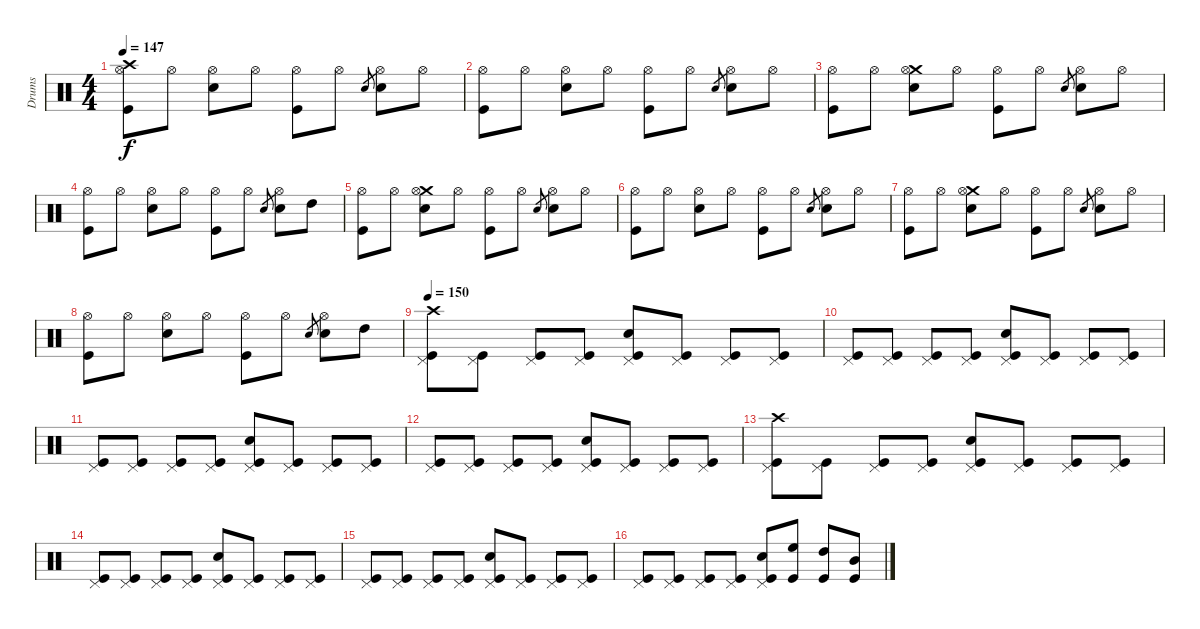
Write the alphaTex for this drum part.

\track ("Drums" "Drums") {instrument percussion}
\staff {score}
\articulation defaults
\ts (4 4)
\section ("" "")
\tempo 147
\clef neutral
\ks c
("Crash high (hit)" "Hi-Hat (open)" "Kick (hit)").8{dy f} "Hi-Hat (open)".8 ("Hi-Hat (open)" "Snare (hit) 2").8 "Hi-Hat (open)".8 ("Hi-Hat (open)" "Kick (hit)").8 "Hi-Hat (open)".8 "Snare (hit) 2".8{gr} ("Hi-Hat (open)" "Snare (hit) 2").8 "Hi-Hat (open)".8 |
("Hi-Hat (open)" "Kick (hit)").8 "Hi-Hat (open)".8 ("Hi-Hat (open)" "Snare (hit) 2").8 "Hi-Hat (open)".8 ("Hi-Hat (open)" "Kick (hit)").8 "Hi-Hat (open)".8 "Snare (hit) 2".8{gr} ("Hi-Hat (open)" "Snare (hit) 2").8 "Hi-Hat (open)".8 |
("Hi-Hat (open)" "Kick (hit)").8 "Hi-Hat (open)".8 ("Crash medium (hit)" "Hi-Hat (open)" "Snare (hit) 2").8 "Hi-Hat (open)".8 ("Hi-Hat (open)" "Kick (hit)").8 "Hi-Hat (open)".8 "Snare (hit) 2".8{gr} ("Hi-Hat (open)" "Snare (hit) 2").8 "Hi-Hat (open)".8 |
("Hi-Hat (open)" "Kick (hit)").8 "Hi-Hat (open)".8 ("Hi-Hat (open)" "Snare (hit) 2").8 "Hi-Hat (open)".8 ("Hi-Hat (open)" "Kick (hit)").8 "Hi-Hat (open)".8 "Snare (hit) 2".8{gr} ("Hi-Hat (open)" "Snare (hit) 2").8 "High Tom (hit)".8 |
("Hi-Hat (open)" "Kick (hit)").8 "Hi-Hat (open)".8 ("Crash medium (hit)" "Hi-Hat (open)" "Snare (hit) 2").8 "Hi-Hat (open)".8 ("Hi-Hat (open)" "Kick (hit)").8 "Hi-Hat (open)".8 "Snare (hit) 2".8{gr} ("Hi-Hat (open)" "Snare (hit) 2").8 "Hi-Hat (open)".8 |
("Hi-Hat (open)" "Kick (hit)").8 "Hi-Hat (open)".8 ("Hi-Hat (open)" "Snare (hit) 2").8 "Hi-Hat (open)".8 ("Hi-Hat (open)" "Kick (hit)").8 "Hi-Hat (open)".8 "Snare (hit) 2".8{gr} ("Hi-Hat (open)" "Snare (hit) 2").8 "Hi-Hat (open)".8 |
("Hi-Hat (open)" "Kick (hit)").8 "Hi-Hat (open)".8 ("Crash medium (hit)" "Hi-Hat (open)" "Snare (hit) 2").8 "Hi-Hat (open)".8 ("Hi-Hat (open)" "Kick (hit)").8 "Hi-Hat (open)".8 "Snare (hit) 2".8{gr} ("Hi-Hat (open)" "Snare (hit) 2").8 "Hi-Hat (open)".8 |
("Hi-Hat (open)" "Kick (hit)").8 "Hi-Hat (open)".8 ("Hi-Hat (open)" "Snare (hit) 2").8 "Hi-Hat (open)".8 ("Hi-Hat (open)" "Kick (hit)").8 "Hi-Hat (open)".8 "Snare (hit) 2".8{gr} ("Hi-Hat (open)" "Snare (hit) 2").8 "High Tom (hit)".8 |
\section ("" "")
\tempo 150
("Crash high (hit)" "Pedal Hi-Hat (hit)" "Kick (hit)").8 ("Pedal Hi-Hat (hit)" "Kick (hit)").8 ("Pedal Hi-Hat (hit)" "Kick (hit)").8 ("Pedal Hi-Hat (hit)" "Kick (hit)").8 ("Pedal Hi-Hat (hit)" "Snare (hit) 2" "Kick (hit)").8 ("Pedal Hi-Hat (hit)" "Kick (hit)").8 ("Pedal Hi-Hat (hit)" "Kick (hit)").8 ("Pedal Hi-Hat (hit)" "Kick (hit)").8 |
("Pedal Hi-Hat (hit)" "Kick (hit)").8 ("Pedal Hi-Hat (hit)" "Kick (hit)").8 ("Pedal Hi-Hat (hit)" "Kick (hit)").8 ("Pedal Hi-Hat (hit)" "Kick (hit)").8 ("Pedal Hi-Hat (hit)" "Snare (hit) 2" "Kick (hit)").8 ("Pedal Hi-Hat (hit)" "Kick (hit)").8 ("Pedal Hi-Hat (hit)" "Kick (hit)").8 ("Pedal Hi-Hat (hit)" "Kick (hit)").8 |
("Pedal Hi-Hat (hit)" "Kick (hit)").8 ("Pedal Hi-Hat (hit)" "Kick (hit)").8 ("Pedal Hi-Hat (hit)" "Kick (hit)").8 ("Pedal Hi-Hat (hit)" "Kick (hit)").8 ("Pedal Hi-Hat (hit)" "Snare (hit) 2" "Kick (hit)").8 ("Pedal Hi-Hat (hit)" "Kick (hit)").8 ("Pedal Hi-Hat (hit)" "Kick (hit)").8 ("Pedal Hi-Hat (hit)" "Kick (hit)").8 |
("Pedal Hi-Hat (hit)" "Kick (hit)").8 ("Pedal Hi-Hat (hit)" "Kick (hit)").8 ("Pedal Hi-Hat (hit)" "Kick (hit)").8 ("Pedal Hi-Hat (hit)" "Kick (hit)").8 ("Pedal Hi-Hat (hit)" "Snare (hit) 2" "Kick (hit)").8 ("Pedal Hi-Hat (hit)" "Kick (hit)").8 ("Pedal Hi-Hat (hit)" "Kick (hit)").8 ("Pedal Hi-Hat (hit)" "Kick (hit)").8 |
("Crash high (hit)" "Pedal Hi-Hat (hit)" "Kick (hit)").8 ("Pedal Hi-Hat (hit)" "Kick (hit)").8 ("Pedal Hi-Hat (hit)" "Kick (hit)").8 ("Pedal Hi-Hat (hit)" "Kick (hit)").8 ("Pedal Hi-Hat (hit)" "Snare (hit) 2" "Kick (hit)").8 ("Pedal Hi-Hat (hit)" "Kick (hit)").8 ("Pedal Hi-Hat (hit)" "Kick (hit)").8 ("Pedal Hi-Hat (hit)" "Kick (hit)").8 |
("Pedal Hi-Hat (hit)" "Kick (hit)").8 ("Pedal Hi-Hat (hit)" "Kick (hit)").8 ("Pedal Hi-Hat (hit)" "Kick (hit)").8 ("Pedal Hi-Hat (hit)" "Kick (hit)").8 ("Pedal Hi-Hat (hit)" "Snare (hit) 2" "Kick (hit)").8 ("Pedal Hi-Hat (hit)" "Kick (hit)").8 ("Pedal Hi-Hat (hit)" "Kick (hit)").8 ("Pedal Hi-Hat (hit)" "Kick (hit)").8 |
("Pedal Hi-Hat (hit)" "Kick (hit)").8 ("Pedal Hi-Hat (hit)" "Kick (hit)").8 ("Pedal Hi-Hat (hit)" "Kick (hit)").8 ("Pedal Hi-Hat (hit)" "Kick (hit)").8 ("Pedal Hi-Hat (hit)" "Snare (hit) 2" "Kick (hit)").8 ("Pedal Hi-Hat (hit)" "Kick (hit)").8 ("Pedal Hi-Hat (hit)" "Kick (hit)").8 ("Pedal Hi-Hat (hit)" "Kick (hit)").8 |
("Pedal Hi-Hat (hit)" "Kick (hit)").8 ("Pedal Hi-Hat (hit)" "Kick (hit)").8 ("Pedal Hi-Hat (hit)" "Kick (hit)").8 ("Pedal Hi-Hat (hit)" "Kick (hit)").8 ("Pedal Hi-Hat (hit)" "Snare (hit) 2" "Kick (hit)").8 ("High Floor Tom (hit)" "Kick (hit)").8 ("High Tom (hit)" "Kick (hit)").8 ("Mid Tom (hit)" "Kick (hit)").8
